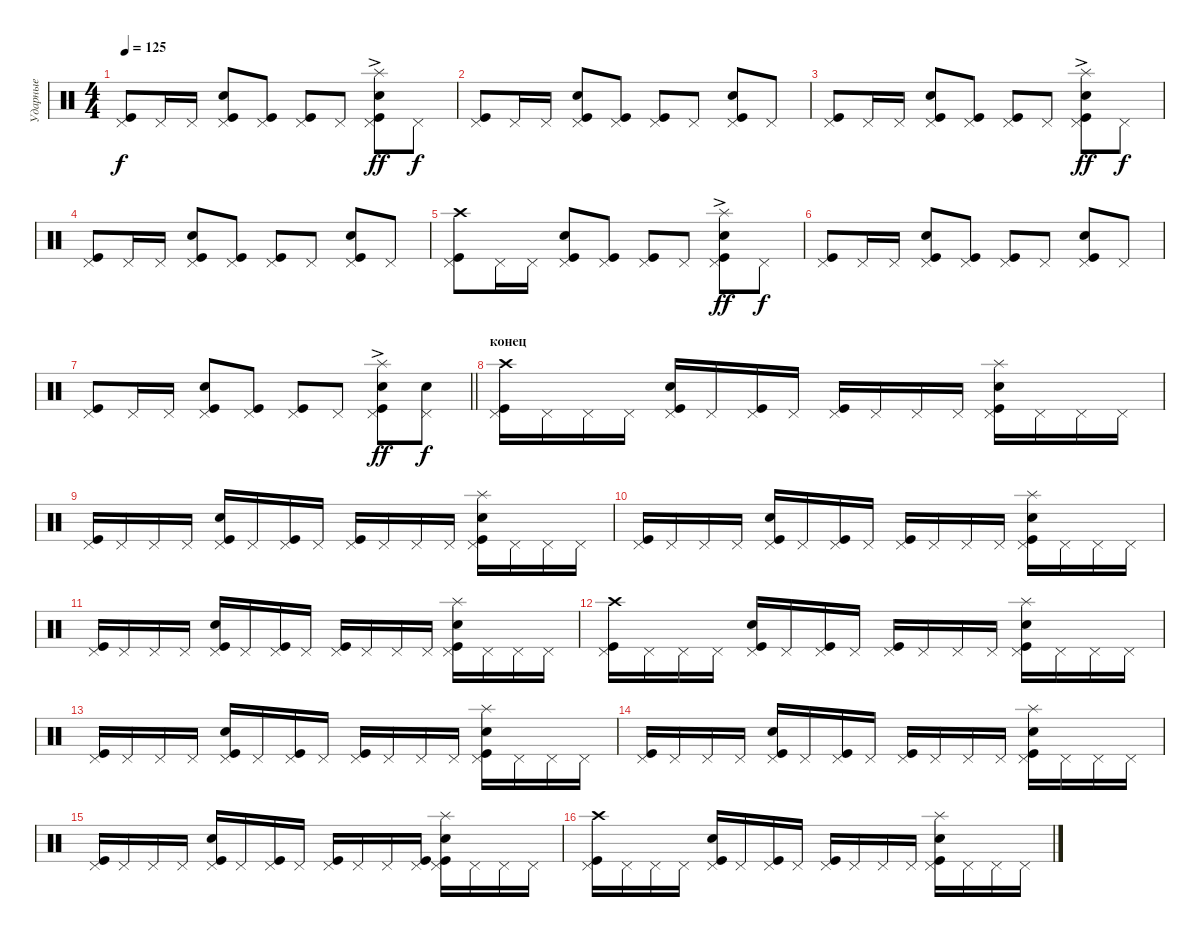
\track ("Ударные" "Ударные") {instrument percussion}
\staff {score}
\articulation defaults
\ts (4 4)
\tempo 125
\clef neutral
\ks c
("Pedal Hi-Hat (hit)" "Kick (hit)").8{dy f} "Pedal Hi-Hat (hit)".16 "Pedal Hi-Hat (hit)".16 ("Pedal Hi-Hat (hit)" "Kick (hit)" "Snare (hit) 2").8 ("Pedal Hi-Hat (hit)" "Kick (hit)").8 ("Pedal Hi-Hat (hit)" "Kick (hit)").8 "Pedal Hi-Hat (hit)".8 ("Pedal Hi-Hat (hit)" "Kick (hit)" "Snare (hit) 2" "Splash (hit)"{ac}).8{dy ff} "Pedal Hi-Hat (hit)".8{dy f} |
("Pedal Hi-Hat (hit)" "Kick (hit)").8 "Pedal Hi-Hat (hit)".16 "Pedal Hi-Hat (hit)".16 ("Pedal Hi-Hat (hit)" "Kick (hit)" "Snare (hit) 2").8 ("Pedal Hi-Hat (hit)" "Kick (hit)").8 ("Pedal Hi-Hat (hit)" "Kick (hit)").8 "Pedal Hi-Hat (hit)".8 ("Pedal Hi-Hat (hit)" "Kick (hit)" "Snare (hit) 2").8 "Pedal Hi-Hat (hit)".8 |
("Pedal Hi-Hat (hit)" "Kick (hit)").8 "Pedal Hi-Hat (hit)".16 "Pedal Hi-Hat (hit)".16 ("Pedal Hi-Hat (hit)" "Kick (hit)" "Snare (hit) 2").8 ("Pedal Hi-Hat (hit)" "Kick (hit)").8 ("Pedal Hi-Hat (hit)" "Kick (hit)").8 "Pedal Hi-Hat (hit)".8 ("Pedal Hi-Hat (hit)" "Kick (hit)" "Snare (hit) 2" "Splash (hit)"{ac}).8{dy ff} "Pedal Hi-Hat (hit)".8{dy f} |
("Pedal Hi-Hat (hit)" "Kick (hit)").8 "Pedal Hi-Hat (hit)".16 "Pedal Hi-Hat (hit)".16 ("Pedal Hi-Hat (hit)" "Kick (hit)" "Snare (hit) 2").8 ("Pedal Hi-Hat (hit)" "Kick (hit)").8 ("Pedal Hi-Hat (hit)" "Kick (hit)").8 "Pedal Hi-Hat (hit)".8 ("Pedal Hi-Hat (hit)" "Kick (hit)" "Snare (hit) 2").8 "Pedal Hi-Hat (hit)".8 |
("Pedal Hi-Hat (hit)" "Kick (hit)" "Crash high (hit)").8 "Pedal Hi-Hat (hit)".16 "Pedal Hi-Hat (hit)".16 ("Pedal Hi-Hat (hit)" "Kick (hit)" "Snare (hit) 2").8 ("Pedal Hi-Hat (hit)" "Kick (hit)").8 ("Pedal Hi-Hat (hit)" "Kick (hit)").8 "Pedal Hi-Hat (hit)".8 ("Pedal Hi-Hat (hit)" "Kick (hit)" "Snare (hit) 2" "Splash (hit)"{ac}).8{dy ff} "Pedal Hi-Hat (hit)".8{dy f} |
("Pedal Hi-Hat (hit)" "Kick (hit)").8 "Pedal Hi-Hat (hit)".16 "Pedal Hi-Hat (hit)".16 ("Pedal Hi-Hat (hit)" "Kick (hit)" "Snare (hit) 2").8 ("Pedal Hi-Hat (hit)" "Kick (hit)").8 ("Pedal Hi-Hat (hit)" "Kick (hit)").8 "Pedal Hi-Hat (hit)".8 ("Pedal Hi-Hat (hit)" "Kick (hit)" "Snare (hit) 2").8 "Pedal Hi-Hat (hit)".8 |
\barLineRight lightlight
("Pedal Hi-Hat (hit)" "Kick (hit)").8 "Pedal Hi-Hat (hit)".16 "Pedal Hi-Hat (hit)".16 ("Pedal Hi-Hat (hit)" "Kick (hit)" "Snare (hit) 2").8 ("Pedal Hi-Hat (hit)" "Kick (hit)").8 ("Pedal Hi-Hat (hit)" "Kick (hit)").8 "Pedal Hi-Hat (hit)".8 ("Pedal Hi-Hat (hit)" "Kick (hit)" "Snare (hit) 2" "Splash (hit)"{ac}).8{dy ff} ("Pedal Hi-Hat (hit)" "Hand Clap (hit)").8{dy f} |
\section ("" "конец")
("Pedal Hi-Hat (hit)" "Kick (hit)" "Crash high (hit)").16 "Pedal Hi-Hat (hit)".16 "Pedal Hi-Hat (hit)".16 "Pedal Hi-Hat (hit)".16 ("Pedal Hi-Hat (hit)" "Kick (hit)" "Snare (hit) 2").16 "Pedal Hi-Hat (hit)".16 ("Pedal Hi-Hat (hit)" "Kick (hit)").16 "Pedal Hi-Hat (hit)".16 ("Pedal Hi-Hat (hit)" "Kick (hit)").16 "Pedal Hi-Hat (hit)".16 "Pedal Hi-Hat (hit)".16 "Pedal Hi-Hat (hit)".16 ("Pedal Hi-Hat (hit)" "Kick (hit)" "Snare (hit) 2" "Splash (hit)").16 "Pedal Hi-Hat (hit)".16 "Pedal Hi-Hat (hit)".16 "Pedal Hi-Hat (hit)".16 |
("Pedal Hi-Hat (hit)" "Kick (hit)").16 "Pedal Hi-Hat (hit)".16 "Pedal Hi-Hat (hit)".16 "Pedal Hi-Hat (hit)".16 ("Pedal Hi-Hat (hit)" "Kick (hit)" "Snare (hit) 2").16 "Pedal Hi-Hat (hit)".16 ("Pedal Hi-Hat (hit)" "Kick (hit)").16 "Pedal Hi-Hat (hit)".16 ("Pedal Hi-Hat (hit)" "Kick (hit)").16 "Pedal Hi-Hat (hit)".16 "Pedal Hi-Hat (hit)".16 "Pedal Hi-Hat (hit)".16 ("Pedal Hi-Hat (hit)" "Kick (hit)" "Snare (hit) 2" "Splash (hit)").16 "Pedal Hi-Hat (hit)".16 "Pedal Hi-Hat (hit)".16 "Pedal Hi-Hat (hit)".16 |
("Pedal Hi-Hat (hit)" "Kick (hit)").16 "Pedal Hi-Hat (hit)".16 "Pedal Hi-Hat (hit)".16 "Pedal Hi-Hat (hit)".16 ("Pedal Hi-Hat (hit)" "Kick (hit)" "Snare (hit) 2").16 "Pedal Hi-Hat (hit)".16 ("Pedal Hi-Hat (hit)" "Kick (hit)").16 "Pedal Hi-Hat (hit)".16 ("Pedal Hi-Hat (hit)" "Kick (hit)").16 "Pedal Hi-Hat (hit)".16 "Pedal Hi-Hat (hit)".16 "Pedal Hi-Hat (hit)".16 ("Pedal Hi-Hat (hit)" "Kick (hit)" "Snare (hit) 2" "Splash (hit)").16 "Pedal Hi-Hat (hit)".16 "Pedal Hi-Hat (hit)".16 "Pedal Hi-Hat (hit)".16 |
("Pedal Hi-Hat (hit)" "Kick (hit)").16 "Pedal Hi-Hat (hit)".16 "Pedal Hi-Hat (hit)".16 "Pedal Hi-Hat (hit)".16 ("Pedal Hi-Hat (hit)" "Kick (hit)" "Snare (hit) 2").16 "Pedal Hi-Hat (hit)".16 ("Pedal Hi-Hat (hit)" "Kick (hit)").16 "Pedal Hi-Hat (hit)".16 ("Pedal Hi-Hat (hit)" "Kick (hit)").16 "Pedal Hi-Hat (hit)".16 "Pedal Hi-Hat (hit)".16 "Pedal Hi-Hat (hit)".16 ("Pedal Hi-Hat (hit)" "Kick (hit)" "Snare (hit) 2" "Splash (hit)").16 "Pedal Hi-Hat (hit)".16 "Pedal Hi-Hat (hit)".16 "Pedal Hi-Hat (hit)".16 |
("Pedal Hi-Hat (hit)" "Kick (hit)" "Crash high (hit)").16 "Pedal Hi-Hat (hit)".16 "Pedal Hi-Hat (hit)".16 "Pedal Hi-Hat (hit)".16 ("Pedal Hi-Hat (hit)" "Kick (hit)" "Snare (hit) 2").16 "Pedal Hi-Hat (hit)".16 ("Pedal Hi-Hat (hit)" "Kick (hit)").16 "Pedal Hi-Hat (hit)".16 ("Pedal Hi-Hat (hit)" "Kick (hit)").16 "Pedal Hi-Hat (hit)".16 "Pedal Hi-Hat (hit)".16 "Pedal Hi-Hat (hit)".16 ("Pedal Hi-Hat (hit)" "Kick (hit)" "Snare (hit) 2" "Splash (hit)").16 "Pedal Hi-Hat (hit)".16 "Pedal Hi-Hat (hit)".16 "Pedal Hi-Hat (hit)".16 |
("Pedal Hi-Hat (hit)" "Kick (hit)").16 "Pedal Hi-Hat (hit)".16 "Pedal Hi-Hat (hit)".16 "Pedal Hi-Hat (hit)".16 ("Pedal Hi-Hat (hit)" "Kick (hit)" "Snare (hit) 2").16 "Pedal Hi-Hat (hit)".16 ("Pedal Hi-Hat (hit)" "Kick (hit)").16 "Pedal Hi-Hat (hit)".16 ("Pedal Hi-Hat (hit)" "Kick (hit)").16 "Pedal Hi-Hat (hit)".16 "Pedal Hi-Hat (hit)".16 "Pedal Hi-Hat (hit)".16 ("Pedal Hi-Hat (hit)" "Kick (hit)" "Snare (hit) 2" "Splash (hit)").16 "Pedal Hi-Hat (hit)".16 "Pedal Hi-Hat (hit)".16 "Pedal Hi-Hat (hit)".16 |
("Pedal Hi-Hat (hit)" "Kick (hit)").16 "Pedal Hi-Hat (hit)".16 "Pedal Hi-Hat (hit)".16 "Pedal Hi-Hat (hit)".16 ("Pedal Hi-Hat (hit)" "Kick (hit)" "Snare (hit) 2").16 "Pedal Hi-Hat (hit)".16 ("Pedal Hi-Hat (hit)" "Kick (hit)").16 "Pedal Hi-Hat (hit)".16 ("Pedal Hi-Hat (hit)" "Kick (hit)").16 "Pedal Hi-Hat (hit)".16 "Pedal Hi-Hat (hit)".16 "Pedal Hi-Hat (hit)".16 ("Pedal Hi-Hat (hit)" "Kick (hit)" "Snare (hit) 2" "Splash (hit)").16 "Pedal Hi-Hat (hit)".16 "Pedal Hi-Hat (hit)".16 "Pedal Hi-Hat (hit)".16 |
("Pedal Hi-Hat (hit)" "Kick (hit)").16 "Pedal Hi-Hat (hit)".16 "Pedal Hi-Hat (hit)".16 "Pedal Hi-Hat (hit)".16 ("Pedal Hi-Hat (hit)" "Kick (hit)" "Snare (hit) 2").16 "Pedal Hi-Hat (hit)".16 ("Pedal Hi-Hat (hit)" "Kick (hit)").16 "Pedal Hi-Hat (hit)".16 ("Pedal Hi-Hat (hit)" "Kick (hit)").16 "Pedal Hi-Hat (hit)".16 "Pedal Hi-Hat (hit)".16 ("Pedal Hi-Hat (hit)" "Kick (hit)").16 ("Pedal Hi-Hat (hit)" "Kick (hit)" "Snare (hit) 2" "Splash (hit)").16 "Pedal Hi-Hat (hit)".16 "Pedal Hi-Hat (hit)".16 "Pedal Hi-Hat (hit)".16 |
("Pedal Hi-Hat (hit)" "Kick (hit)" "Crash high (hit)").16 "Pedal Hi-Hat (hit)".16 "Pedal Hi-Hat (hit)".16 "Pedal Hi-Hat (hit)".16 ("Pedal Hi-Hat (hit)" "Kick (hit)" "Snare (hit) 2").16 "Pedal Hi-Hat (hit)".16 ("Pedal Hi-Hat (hit)" "Kick (hit)").16 "Pedal Hi-Hat (hit)".16 ("Pedal Hi-Hat (hit)" "Kick (hit)").16 "Pedal Hi-Hat (hit)".16 "Pedal Hi-Hat (hit)".16 "Pedal Hi-Hat (hit)".16 ("Pedal Hi-Hat (hit)" "Kick (hit)" "Snare (hit) 2" "Splash (hit)").16 "Pedal Hi-Hat (hit)".16 "Pedal Hi-Hat (hit)".16 "Pedal Hi-Hat (hit)".16
